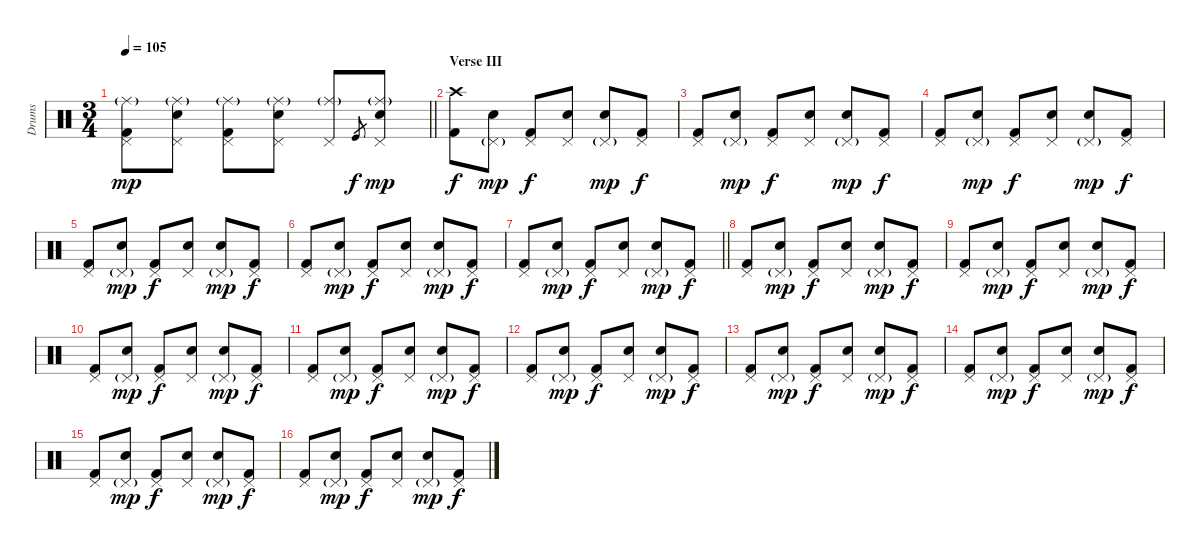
\track ("Drums" "Drums") {instrument percussion}
\staff {score}
\articulation defaults
\ts (3 4)
\tempo 105
\clef neutral
\barLineRight lightlight
\ks c
("Ride (middle)"{g} "Pedal Hi-Hat (hit)" "Kick (hit) 2").8{dy mp} ("Ride (middle)"{g} "Pedal Hi-Hat (hit)" "Snare (hit)").8 ("Ride (middle)"{g} "Pedal Hi-Hat (hit)" "Kick (hit) 2").8 ("Ride (middle)"{g} "Pedal Hi-Hat (hit)" "Electric Snare (hit)").8 ("Ride (middle)"{g} "Pedal Hi-Hat (hit)").8 "Kick (hit)".8{gr dy f} ("Ride (middle)"{g} "Pedal Hi-Hat (hit)" "Electric Snare (hit)").8{dy mp} |
\section ("" "Verse III")
("Crash high (hit)" "Kick (hit) 2").8{dy f} ("Pedal Hi-Hat (hit)"{g} "Snare (hit)").8{dy mp} ("Pedal Hi-Hat (hit)" "Kick (hit) 2").8{dy f} ("Pedal Hi-Hat (hit)" "Electric Snare (hit)").8 ("Pedal Hi-Hat (hit)"{g} "Snare (hit)").8{dy mp} ("Pedal Hi-Hat (hit)" "Kick (hit) 2").8{dy f} |
("Pedal Hi-Hat (hit)" "Kick (hit) 2").8 ("Pedal Hi-Hat (hit)"{g} "Snare (hit)").8{dy mp} ("Pedal Hi-Hat (hit)" "Kick (hit) 2").8{dy f} ("Pedal Hi-Hat (hit)" "Electric Snare (hit)").8 ("Pedal Hi-Hat (hit)"{g} "Snare (hit)").8{dy mp} ("Pedal Hi-Hat (hit)" "Kick (hit) 2").8{dy f} |
("Pedal Hi-Hat (hit)" "Kick (hit) 2").8 ("Pedal Hi-Hat (hit)"{g} "Snare (hit)").8{dy mp} ("Pedal Hi-Hat (hit)" "Kick (hit) 2").8{dy f} ("Pedal Hi-Hat (hit)" "Electric Snare (hit)").8 ("Pedal Hi-Hat (hit)"{g} "Snare (hit)").8{dy mp} ("Pedal Hi-Hat (hit)" "Kick (hit) 2").8{dy f} |
("Pedal Hi-Hat (hit)" "Kick (hit) 2").8 ("Pedal Hi-Hat (hit)"{g} "Snare (hit)").8{dy mp} ("Pedal Hi-Hat (hit)" "Kick (hit) 2").8{dy f} ("Pedal Hi-Hat (hit)" "Electric Snare (hit)").8 ("Pedal Hi-Hat (hit)"{g} "Snare (hit)").8{dy mp} ("Pedal Hi-Hat (hit)" "Kick (hit) 2").8{dy f} |
("Pedal Hi-Hat (hit)" "Kick (hit) 2").8 ("Pedal Hi-Hat (hit)"{g} "Snare (hit)").8{dy mp} ("Pedal Hi-Hat (hit)" "Kick (hit) 2").8{dy f} ("Pedal Hi-Hat (hit)" "Electric Snare (hit)").8 ("Pedal Hi-Hat (hit)"{g} "Snare (hit)").8{dy mp} ("Pedal Hi-Hat (hit)" "Kick (hit) 2").8{dy f} |
\barLineRight lightlight
("Pedal Hi-Hat (hit)" "Kick (hit) 2").8 ("Pedal Hi-Hat (hit)"{g} "Snare (hit)").8{dy mp} ("Pedal Hi-Hat (hit)" "Kick (hit) 2").8{dy f} ("Pedal Hi-Hat (hit)" "Electric Snare (hit)").8 ("Pedal Hi-Hat (hit)"{g} "Snare (hit)").8{dy mp} ("Pedal Hi-Hat (hit)" "Kick (hit) 2").8{dy f} |
("Pedal Hi-Hat (hit)" "Kick (hit) 2").8 ("Pedal Hi-Hat (hit)"{g} "Snare (hit)").8{dy mp} ("Pedal Hi-Hat (hit)" "Kick (hit) 2").8{dy f} ("Pedal Hi-Hat (hit)" "Electric Snare (hit)").8 ("Pedal Hi-Hat (hit)"{g} "Snare (hit)").8{dy mp} ("Pedal Hi-Hat (hit)" "Kick (hit) 2").8{dy f} |
("Pedal Hi-Hat (hit)" "Kick (hit) 2").8 ("Pedal Hi-Hat (hit)"{g} "Snare (hit)").8{dy mp} ("Pedal Hi-Hat (hit)" "Kick (hit) 2").8{dy f} ("Pedal Hi-Hat (hit)" "Electric Snare (hit)").8 ("Pedal Hi-Hat (hit)"{g} "Snare (hit)").8{dy mp} ("Pedal Hi-Hat (hit)" "Kick (hit) 2").8{dy f} |
("Pedal Hi-Hat (hit)" "Kick (hit) 2").8 ("Pedal Hi-Hat (hit)"{g} "Snare (hit)").8{dy mp} ("Pedal Hi-Hat (hit)" "Kick (hit) 2").8{dy f} ("Pedal Hi-Hat (hit)" "Electric Snare (hit)").8 ("Pedal Hi-Hat (hit)"{g} "Snare (hit)").8{dy mp} ("Pedal Hi-Hat (hit)" "Kick (hit) 2").8{dy f} |
("Pedal Hi-Hat (hit)" "Kick (hit) 2").8 ("Pedal Hi-Hat (hit)"{g} "Snare (hit)").8{dy mp} ("Pedal Hi-Hat (hit)" "Kick (hit) 2").8{dy f} ("Pedal Hi-Hat (hit)" "Electric Snare (hit)").8 ("Pedal Hi-Hat (hit)"{g} "Snare (hit)").8{dy mp} ("Pedal Hi-Hat (hit)" "Kick (hit) 2").8{dy f} |
("Pedal Hi-Hat (hit)" "Kick (hit) 2").8 ("Pedal Hi-Hat (hit)"{g} "Snare (hit)").8{dy mp} ("Pedal Hi-Hat (hit)" "Kick (hit) 2").8{dy f} ("Pedal Hi-Hat (hit)" "Electric Snare (hit)").8 ("Pedal Hi-Hat (hit)"{g} "Snare (hit)").8{dy mp} ("Pedal Hi-Hat (hit)" "Kick (hit) 2").8{dy f} |
("Pedal Hi-Hat (hit)" "Kick (hit) 2").8 ("Pedal Hi-Hat (hit)"{g} "Snare (hit)").8{dy mp} ("Pedal Hi-Hat (hit)" "Kick (hit) 2").8{dy f} ("Pedal Hi-Hat (hit)" "Electric Snare (hit)").8 ("Pedal Hi-Hat (hit)"{g} "Snare (hit)").8{dy mp} ("Pedal Hi-Hat (hit)" "Kick (hit) 2").8{dy f} |
("Pedal Hi-Hat (hit)" "Kick (hit) 2").8 ("Pedal Hi-Hat (hit)"{g} "Snare (hit)").8{dy mp} ("Pedal Hi-Hat (hit)" "Kick (hit) 2").8{dy f} ("Pedal Hi-Hat (hit)" "Electric Snare (hit)").8 ("Pedal Hi-Hat (hit)"{g} "Snare (hit)").8{dy mp} ("Pedal Hi-Hat (hit)" "Kick (hit) 2").8{dy f} |
("Pedal Hi-Hat (hit)" "Kick (hit) 2").8 ("Pedal Hi-Hat (hit)"{g} "Snare (hit)").8{dy mp} ("Pedal Hi-Hat (hit)" "Kick (hit) 2").8{dy f} ("Pedal Hi-Hat (hit)" "Electric Snare (hit)").8 ("Pedal Hi-Hat (hit)"{g} "Snare (hit)").8{dy mp} ("Pedal Hi-Hat (hit)" "Kick (hit) 2").8{dy f} |
("Pedal Hi-Hat (hit)" "Kick (hit) 2").8 ("Pedal Hi-Hat (hit)"{g} "Snare (hit)").8{dy mp} ("Pedal Hi-Hat (hit)" "Kick (hit) 2").8{dy f} ("Pedal Hi-Hat (hit)" "Electric Snare (hit)").8 ("Pedal Hi-Hat (hit)"{g} "Snare (hit)").8{dy mp} ("Pedal Hi-Hat (hit)" "Kick (hit) 2").8{dy f}
